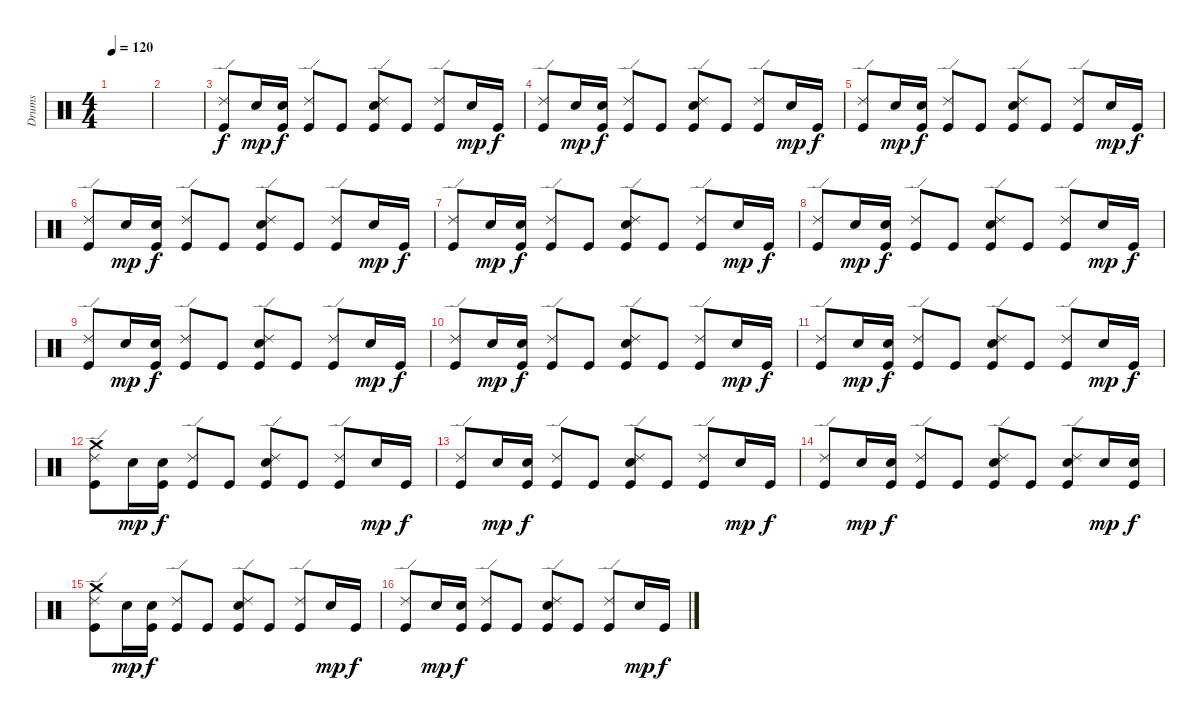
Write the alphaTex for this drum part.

\track ("Drums" "Drums") {instrument percussion}
\staff {score}
\articulation defaults
\ts (4 4)
\tempo 120
\clef neutral
\ks c
|
|
("Kick (hit)" "Ride (edge) 2").8 "Electric Snare (hit)".16{dy mp} ("Kick (hit)" "Electric Snare (hit)").16{dy f} ("Kick (hit)" "Ride (edge) 2").8 "Kick (hit)".8 ("Kick (hit)" "Electric Snare (hit)" "Ride (edge) 2").8 "Kick (hit)".8 ("Kick (hit)" "Ride (edge) 2").8 "Electric Snare (hit)".16{dy mp} "Kick (hit)".16{dy f} |
("Kick (hit)" "Ride (edge) 2").8 "Electric Snare (hit)".16{dy mp} ("Kick (hit)" "Electric Snare (hit)").16{dy f} ("Kick (hit)" "Ride (edge) 2").8 "Kick (hit)".8 ("Kick (hit)" "Electric Snare (hit)" "Ride (edge) 2").8 "Kick (hit)".8 ("Kick (hit)" "Ride (edge) 2").8 "Electric Snare (hit)".16{dy mp} "Kick (hit)".16{dy f} |
("Kick (hit)" "Ride (edge) 2").8 "Electric Snare (hit)".16{dy mp} ("Kick (hit)" "Electric Snare (hit)").16{dy f} ("Kick (hit)" "Ride (edge) 2").8 "Kick (hit)".8 ("Kick (hit)" "Electric Snare (hit)" "Ride (edge) 2").8 "Kick (hit)".8 ("Kick (hit)" "Ride (edge) 2").8 "Electric Snare (hit)".16{dy mp} "Kick (hit)".16{dy f} |
("Kick (hit)" "Ride (edge) 2").8 "Electric Snare (hit)".16{dy mp} ("Kick (hit)" "Electric Snare (hit)").16{dy f} ("Kick (hit)" "Ride (edge) 2").8 "Kick (hit)".8 ("Kick (hit)" "Electric Snare (hit)" "Ride (edge) 2").8 "Kick (hit)".8 ("Kick (hit)" "Ride (edge) 2").8 "Electric Snare (hit)".16{dy mp} "Kick (hit)".16{dy f} |
("Kick (hit)" "Ride (edge) 2").8 "Electric Snare (hit)".16{dy mp} ("Kick (hit)" "Electric Snare (hit)").16{dy f} ("Kick (hit)" "Ride (edge) 2").8 "Kick (hit)".8 ("Kick (hit)" "Electric Snare (hit)" "Ride (edge) 2").8 "Kick (hit)".8 ("Kick (hit)" "Ride (edge) 2").8 "Electric Snare (hit)".16{dy mp} "Kick (hit)".16{dy f} |
("Kick (hit)" "Ride (edge) 2").8 "Electric Snare (hit)".16{dy mp} ("Kick (hit)" "Electric Snare (hit)").16{dy f} ("Kick (hit)" "Ride (edge) 2").8 "Kick (hit)".8 ("Kick (hit)" "Electric Snare (hit)" "Ride (edge) 2").8 "Kick (hit)".8 ("Kick (hit)" "Ride (edge) 2").8 "Electric Snare (hit)".16{dy mp} "Kick (hit)".16{dy f} |
("Kick (hit)" "Ride (edge) 2").8 "Electric Snare (hit)".16{dy mp} ("Kick (hit)" "Electric Snare (hit)").16{dy f} ("Kick (hit)" "Ride (edge) 2").8 "Kick (hit)".8 ("Kick (hit)" "Electric Snare (hit)" "Ride (edge) 2").8 "Kick (hit)".8 ("Kick (hit)" "Ride (edge) 2").8 "Electric Snare (hit)".16{dy mp} "Kick (hit)".16{dy f} |
("Kick (hit)" "Ride (edge) 2").8 "Electric Snare (hit)".16{dy mp} ("Kick (hit)" "Electric Snare (hit)").16{dy f} ("Kick (hit)" "Ride (edge) 2").8 "Kick (hit)".8 ("Kick (hit)" "Electric Snare (hit)" "Ride (edge) 2").8 "Kick (hit)".8 ("Kick (hit)" "Ride (edge) 2").8 "Electric Snare (hit)".16{dy mp} "Kick (hit)".16{dy f} |
("Kick (hit)" "Ride (edge) 2").8 "Electric Snare (hit)".16{dy mp} ("Kick (hit)" "Electric Snare (hit)").16{dy f} ("Kick (hit)" "Ride (edge) 2").8 "Kick (hit)".8 ("Kick (hit)" "Electric Snare (hit)" "Ride (edge) 2").8 "Kick (hit)".8 ("Kick (hit)" "Ride (edge) 2").8 "Electric Snare (hit)".16{dy mp} "Kick (hit)".16{dy f} |
("Kick (hit)" "Crash medium (hit)" "Ride (edge) 2").8 "Electric Snare (hit)".16{dy mp} ("Kick (hit)" "Electric Snare (hit)").16{dy f} ("Kick (hit)" "Ride (edge) 2").8 "Kick (hit)".8 ("Kick (hit)" "Electric Snare (hit)" "Ride (edge) 2").8 "Kick (hit)".8 ("Kick (hit)" "Ride (edge) 2").8 "Electric Snare (hit)".16{dy mp} "Kick (hit)".16{dy f} |
("Kick (hit)" "Ride (edge) 2").8 "Electric Snare (hit)".16{dy mp} ("Kick (hit)" "Electric Snare (hit)").16{dy f} ("Kick (hit)" "Ride (edge) 2").8 "Kick (hit)".8 ("Kick (hit)" "Electric Snare (hit)" "Ride (edge) 2").8 "Kick (hit)".8 ("Kick (hit)" "Ride (edge) 2").8 "Electric Snare (hit)".16{dy mp} "Kick (hit)".16{dy f} |
("Kick (hit)" "Ride (edge) 2").8 "Electric Snare (hit)".16{dy mp} ("Kick (hit)" "Electric Snare (hit)").16{dy f} ("Kick (hit)" "Ride (edge) 2").8 "Kick (hit)".8 ("Kick (hit)" "Electric Snare (hit)" "Ride (edge) 2").8 "Kick (hit)".8 ("Kick (hit)" "Electric Snare (hit)" "Ride (edge) 2").8 "Electric Snare (hit)".16{dy mp} ("Kick (hit)" "Electric Snare (hit)").16{dy f} |
("Kick (hit)" "Crash medium (hit)" "Ride (edge) 2").8 "Electric Snare (hit)".16{dy mp} ("Kick (hit)" "Electric Snare (hit)").16{dy f} ("Kick (hit)" "Ride (edge) 2").8 "Kick (hit)".8 ("Kick (hit)" "Electric Snare (hit)" "Ride (edge) 2").8 "Kick (hit)".8 ("Kick (hit)" "Ride (edge) 2").8 "Electric Snare (hit)".16{dy mp} "Kick (hit)".16{dy f} |
("Kick (hit)" "Ride (edge) 2").8 "Electric Snare (hit)".16{dy mp} ("Kick (hit)" "Electric Snare (hit)").16{dy f} ("Kick (hit)" "Ride (edge) 2").8 "Kick (hit)".8 ("Kick (hit)" "Electric Snare (hit)" "Ride (edge) 2").8 "Kick (hit)".8 ("Kick (hit)" "Ride (edge) 2").8 "Electric Snare (hit)".16{dy mp} "Kick (hit)".16{dy f}
